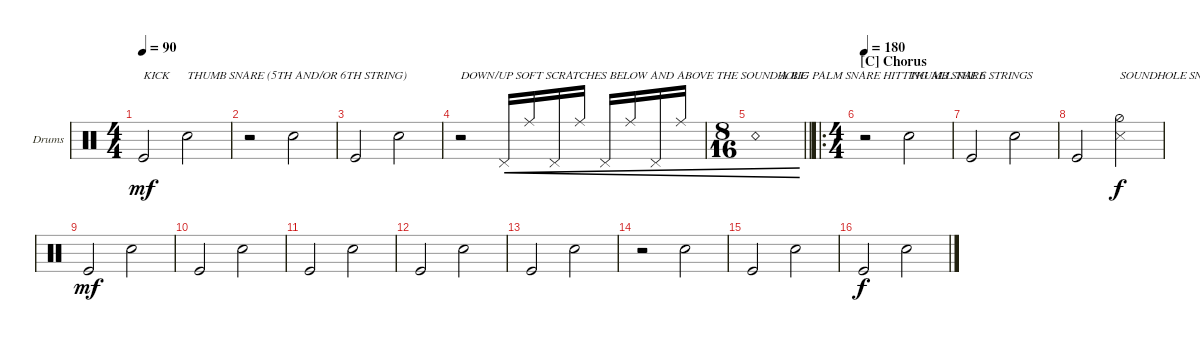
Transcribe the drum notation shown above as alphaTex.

\defaultSystemsLayout 4
\bracketExtendMode groupsimilarinstruments
\firstSystemTrackNameOrientation horizontal
\otherSystemsTrackNameOrientation horizontal
\track ("Drumkit" "Drums") {instrument percussion}
\staff {score}
\articulation defaults
\ts (4 4)
\tempo 90
\clef neutral
\scale
0.333333
\ks c "Kick (hit)".2{txt "KICK" dy mf} "Snare (hit) 2".2{txt "THUMB SNARE (5TH AND/OR 6TH STRING)"}
|
\scale
0.333333 r.2 "Snare (hit) 2".2 |
\scale
0.263889 "Kick (hit)".2 "Snare (hit) 2".2 |
\scale
0.263889 r.2{txt "DOWN/UP SOFT SCRATCHES BELOW AND ABOVE THE SOUNDHOLE"} "Pedal Hi-Hat (hit)".16{cre} "Ride (middle)".16{cre} "Pedal Hi-Hat (hit)".16{cre} "Ride (middle)".16{cre} "Pedal Hi-Hat (hit)".16{cre} "Ride (middle)".16{cre} "Pedal Hi-Hat (hit)".16{cre} "Ride (middle)".16{cre} |
\ts (8 16)
\scale
0.472222
\barLineRight lightlight "Snare (rim shot)".1{txt "        A BIG PALM SNARE HITTING ALL THE 6 STRINGS " cre}
|
\ro
\ts (4 4)
\section ("C" "Chorus")
\tempo 180
\scale
0.5 r.2 "Snare (hit) 2".2{txt "THUMB SNARE"} |
\scale
0.25 "Kick (hit)".2 "Snare (hit) 2".2 |
\scale
0.25 "Kick (hit)".2 ("Snare (side stick) 3" "Hi-Hat (half)").2{txt "SOUNDHOLE SNARE" dy f} |
\scale
0.333333 "Kick (hit)".2{dy mf} "Snare (hit) 2".2 |
\scale
0.333333 "Kick (hit)".2 "Snare (hit) 2".2 |
\scale
0.333333 "Kick (hit)".2 "Snare (hit) 2".2 |
\scale
0.333333 "Kick (hit)".2 "Snare (hit) 2".2 |
\scale
0.333333 "Kick (hit)".2 "Snare (hit) 2".2 |
\scale
0.333333 r.2 "Snare (hit) 2".2 |
\scale
0.333333 "Kick (hit)".2 "Snare (hit) 2".2 |
\scale
0.333333 "Kick (hit)".2{dy f} "Snare (hit) 2".2
